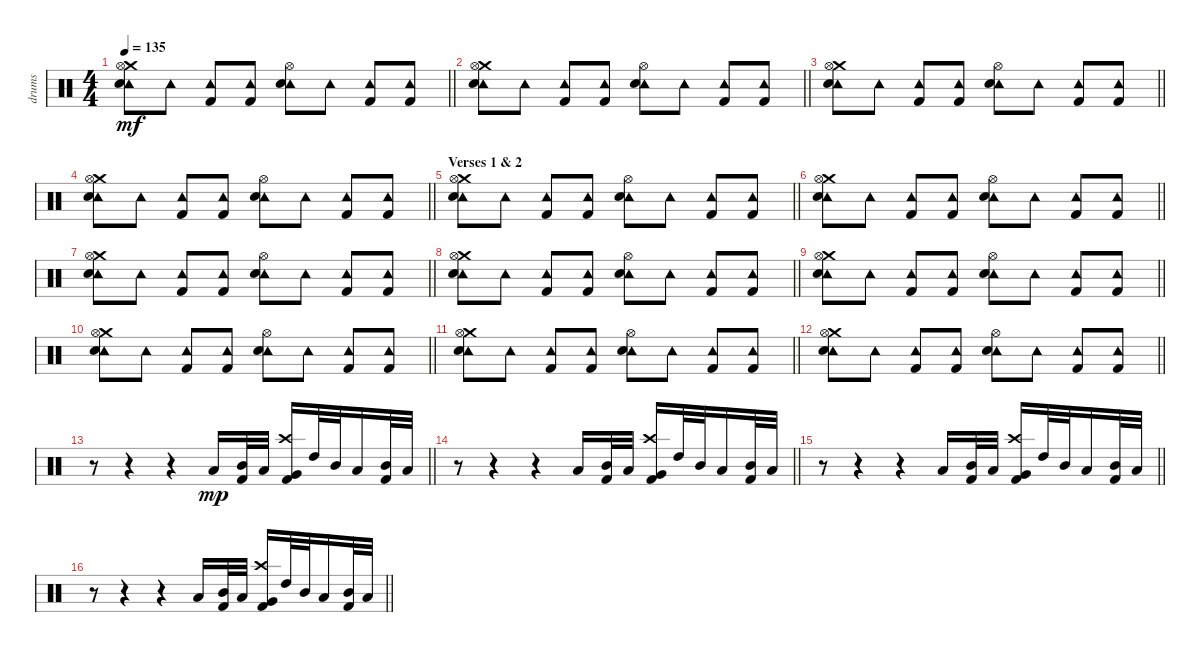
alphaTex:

\track ("drums" "drums") {instrument percussion}
\staff {score}
\articulation defaults
\ts (4 4)
\tempo 135
\clef neutral
\barLineRight lightlight
\ks c
("Tambourine (hit)" "Crash medium (hit)" "Hi-Hat (open)" "Electric Snare (hit)").8{dy mf} "Tambourine (hit)".8 ("Tambourine (hit)" "Kick (hit) 2").8 ("Tambourine (hit)" "Kick (hit) 2").8 ("Tambourine (hit)" "Hi-Hat (open)" "Electric Snare (hit)").8 "Tambourine (hit)".8 ("Tambourine (hit)" "Kick (hit) 2").8 ("Tambourine (hit)" "Kick (hit) 2").8 |
\barLineRight lightlight
("Tambourine (hit)" "Crash medium (hit)" "Hi-Hat (open)" "Electric Snare (hit)").8 "Tambourine (hit)".8 ("Tambourine (hit)" "Kick (hit) 2").8 ("Tambourine (hit)" "Kick (hit) 2").8 ("Tambourine (hit)" "Hi-Hat (open)" "Electric Snare (hit)").8 "Tambourine (hit)".8 ("Tambourine (hit)" "Kick (hit) 2").8 ("Tambourine (hit)" "Kick (hit) 2").8 |
\barLineRight lightlight
("Tambourine (hit)" "Crash medium (hit)" "Hi-Hat (open)" "Electric Snare (hit)").8 "Tambourine (hit)".8 ("Tambourine (hit)" "Kick (hit) 2").8 ("Tambourine (hit)" "Kick (hit) 2").8 ("Tambourine (hit)" "Hi-Hat (open)" "Electric Snare (hit)").8 "Tambourine (hit)".8 ("Tambourine (hit)" "Kick (hit) 2").8 ("Tambourine (hit)" "Kick (hit) 2").8 |
\barLineRight lightlight
("Tambourine (hit)" "Crash medium (hit)" "Hi-Hat (open)" "Electric Snare (hit)").8 "Tambourine (hit)".8 ("Tambourine (hit)" "Kick (hit) 2").8 ("Tambourine (hit)" "Kick (hit) 2").8 ("Tambourine (hit)" "Hi-Hat (open)" "Electric Snare (hit)").8 "Tambourine (hit)".8 ("Tambourine (hit)" "Kick (hit) 2").8 ("Tambourine (hit)" "Kick (hit) 2").8 |
\section ("" "Verses 1 & 2")
\barLineRight lightlight
("Tambourine (hit)" "Crash medium (hit)" "Hi-Hat (open)" "Electric Snare (hit)").8 "Tambourine (hit)".8 ("Tambourine (hit)" "Kick (hit) 2").8 ("Tambourine (hit)" "Kick (hit) 2").8 ("Tambourine (hit)" "Hi-Hat (open)" "Electric Snare (hit)").8 "Tambourine (hit)".8 ("Tambourine (hit)" "Kick (hit) 2").8 ("Tambourine (hit)" "Kick (hit) 2").8 |
\barLineRight lightlight
("Tambourine (hit)" "Crash medium (hit)" "Hi-Hat (open)" "Electric Snare (hit)").8 "Tambourine (hit)".8 ("Tambourine (hit)" "Kick (hit) 2").8 ("Tambourine (hit)" "Kick (hit) 2").8 ("Tambourine (hit)" "Hi-Hat (open)" "Electric Snare (hit)").8 "Tambourine (hit)".8 ("Tambourine (hit)" "Kick (hit) 2").8 ("Tambourine (hit)" "Kick (hit) 2").8 |
\barLineRight lightlight
("Tambourine (hit)" "Crash medium (hit)" "Hi-Hat (open)" "Electric Snare (hit)").8 "Tambourine (hit)".8 ("Tambourine (hit)" "Kick (hit) 2").8 ("Tambourine (hit)" "Kick (hit) 2").8 ("Tambourine (hit)" "Hi-Hat (open)" "Electric Snare (hit)").8 "Tambourine (hit)".8 ("Tambourine (hit)" "Kick (hit) 2").8 ("Tambourine (hit)" "Kick (hit) 2").8 |
\barLineRight lightlight
("Tambourine (hit)" "Crash medium (hit)" "Hi-Hat (open)" "Electric Snare (hit)").8 "Tambourine (hit)".8 ("Tambourine (hit)" "Kick (hit) 2").8 ("Tambourine (hit)" "Kick (hit) 2").8 ("Tambourine (hit)" "Hi-Hat (open)" "Electric Snare (hit)").8 "Tambourine (hit)".8 ("Tambourine (hit)" "Kick (hit) 2").8 ("Tambourine (hit)" "Kick (hit) 2").8 |
\barLineRight lightlight
("Tambourine (hit)" "Crash medium (hit)" "Hi-Hat (open)" "Electric Snare (hit)").8 "Tambourine (hit)".8 ("Tambourine (hit)" "Kick (hit) 2").8 ("Tambourine (hit)" "Kick (hit) 2").8 ("Tambourine (hit)" "Hi-Hat (open)" "Electric Snare (hit)").8 "Tambourine (hit)".8 ("Tambourine (hit)" "Kick (hit) 2").8 ("Tambourine (hit)" "Kick (hit) 2").8 |
\barLineRight lightlight
("Tambourine (hit)" "Crash medium (hit)" "Hi-Hat (open)" "Electric Snare (hit)").8 "Tambourine (hit)".8 ("Tambourine (hit)" "Kick (hit) 2").8 ("Tambourine (hit)" "Kick (hit) 2").8 ("Tambourine (hit)" "Hi-Hat (open)" "Electric Snare (hit)").8 "Tambourine (hit)".8 ("Tambourine (hit)" "Kick (hit) 2").8 ("Tambourine (hit)" "Kick (hit) 2").8 |
\barLineRight lightlight
("Tambourine (hit)" "Crash medium (hit)" "Hi-Hat (open)" "Electric Snare (hit)").8 "Tambourine (hit)".8 ("Tambourine (hit)" "Kick (hit) 2").8 ("Tambourine (hit)" "Kick (hit) 2").8 ("Tambourine (hit)" "Hi-Hat (open)" "Electric Snare (hit)").8 "Tambourine (hit)".8 ("Tambourine (hit)" "Kick (hit) 2").8 ("Tambourine (hit)" "Kick (hit) 2").8 |
\barLineRight lightlight
("Tambourine (hit)" "Crash medium (hit)" "Hi-Hat (open)" "Electric Snare (hit)").8 "Tambourine (hit)".8 ("Tambourine (hit)" "Kick (hit) 2").8 ("Tambourine (hit)" "Kick (hit) 2").8 ("Tambourine (hit)" "Hi-Hat (open)" "Electric Snare (hit)").8 "Tambourine (hit)".8 ("Tambourine (hit)" "Kick (hit) 2").8 ("Tambourine (hit)" "Kick (hit) 2").8 |
\barLineRight lightlight
r.8 r.4 r.4 "Low Tom (hit)".16{dy mp} ("Mid Tom (hit)" "Kick (hit) 2").32 "Low Tom (hit)".32 ("Crash high (hit)" "Very Low Tom (hit)" "Kick (hit) 2").16 "High Tom (hit)".32 "Mid Tom (hit)".32 "Low Tom (hit)".16 ("Mid Tom (hit)" "Kick (hit) 2").32 "Low Tom (hit)".32 |
\barLineRight lightlight
r.8 r.4 r.4 "Low Tom (hit)".16 ("Mid Tom (hit)" "Kick (hit) 2").32 "Low Tom (hit)".32 ("Crash high (hit)" "Very Low Tom (hit)" "Kick (hit) 2").16 "High Tom (hit)".32 "Mid Tom (hit)".32 "Low Tom (hit)".16 ("Mid Tom (hit)" "Kick (hit) 2").32 "Low Tom (hit)".32 |
\barLineRight lightlight
r.8 r.4 r.4 "Low Tom (hit)".16 ("Mid Tom (hit)" "Kick (hit) 2").32 "Low Tom (hit)".32 ("Crash high (hit)" "Very Low Tom (hit)" "Kick (hit) 2").16 "High Tom (hit)".32 "Mid Tom (hit)".32 "Low Tom (hit)".16 ("Mid Tom (hit)" "Kick (hit) 2").32 "Low Tom (hit)".32 |
\barLineRight lightlight
r.8 r.4 r.4 "Low Tom (hit)".16 ("Mid Tom (hit)" "Kick (hit) 2").32 "Low Tom (hit)".32 ("Crash high (hit)" "Very Low Tom (hit)" "Kick (hit) 2").16 "High Tom (hit)".32 "Mid Tom (hit)".32 "Low Tom (hit)".16 ("Mid Tom (hit)" "Kick (hit) 2").32 "Low Tom (hit)".32
